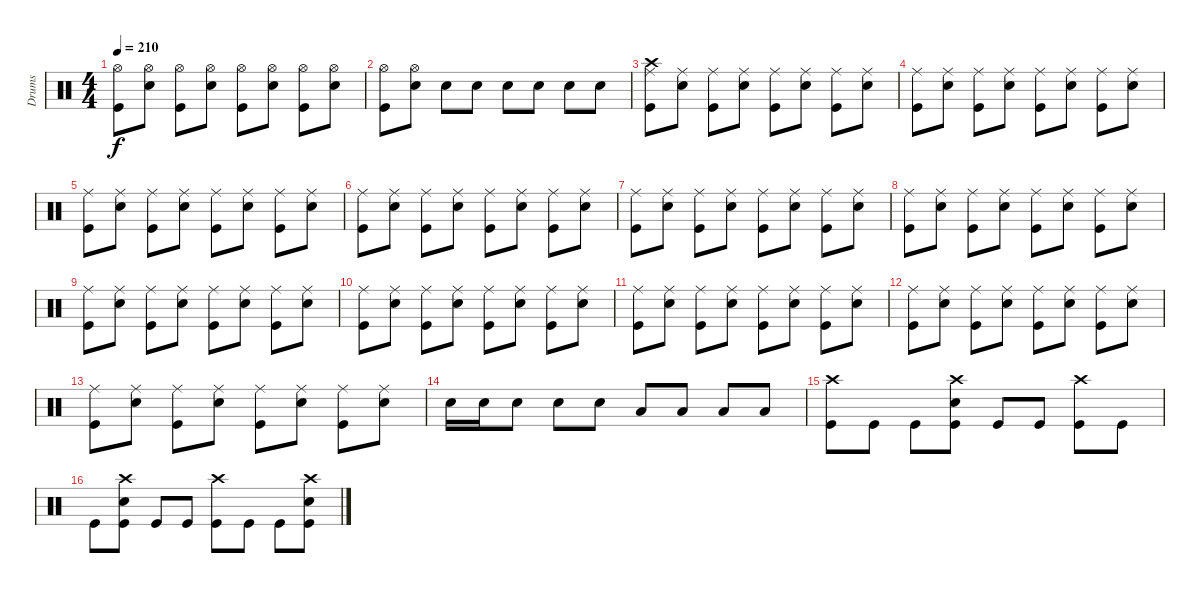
\track ("Drums" "Drums") {instrument percussion}
\staff {score}
\articulation defaults
\ts (4 4)
\tempo 210
\clef neutral
\ks c
("Hi-Hat (open)" "Kick (hit)").8{dy f} ("Electric Snare (hit)" "Hi-Hat (open)").8 ("Hi-Hat (open)" "Kick (hit)").8 ("Electric Snare (hit)" "Hi-Hat (open)").8 ("Hi-Hat (open)" "Kick (hit)").8 ("Electric Snare (hit)" "Hi-Hat (open)").8 ("Hi-Hat (open)" "Kick (hit)").8 ("Electric Snare (hit)" "Hi-Hat (open)").8 |
("Hi-Hat (open)" "Kick (hit)").8 ("Electric Snare (hit)" "Hi-Hat (open)").8 "Electric Snare (hit)".8 "Electric Snare (hit)".8 "Electric Snare (hit)".8 "Electric Snare (hit)".8 "Electric Snare (hit)".8 "Electric Snare (hit)".8 |
("Ride (middle)" "Crash high (hit)" "Kick (hit)").8 ("Electric Snare (hit)" "Ride (middle)").8 ("Ride (middle)" "Kick (hit)").8 ("Electric Snare (hit)" "Ride (middle)").8 ("Ride (middle)" "Kick (hit)").8 ("Electric Snare (hit)" "Ride (middle)").8 ("Ride (middle)" "Kick (hit)").8 ("Electric Snare (hit)" "Ride (middle)").8 |
("Ride (middle)" "Kick (hit)").8 ("Electric Snare (hit)" "Ride (middle)").8 ("Ride (middle)" "Kick (hit)").8 ("Electric Snare (hit)" "Ride (middle)").8 ("Ride (middle)" "Kick (hit)").8 ("Electric Snare (hit)" "Ride (middle)").8 ("Ride (middle)" "Kick (hit)").8 ("Electric Snare (hit)" "Ride (middle)").8 |
("Ride (middle)" "Kick (hit)").8 ("Electric Snare (hit)" "Ride (middle)").8 ("Ride (middle)" "Kick (hit)").8 ("Electric Snare (hit)" "Ride (middle)").8 ("Ride (middle)" "Kick (hit)").8 ("Electric Snare (hit)" "Ride (middle)").8 ("Ride (middle)" "Kick (hit)").8 ("Electric Snare (hit)" "Ride (middle)").8 |
("Ride (middle)" "Kick (hit)").8 ("Electric Snare (hit)" "Ride (middle)").8 ("Ride (middle)" "Kick (hit)").8 ("Electric Snare (hit)" "Ride (middle)").8 ("Ride (middle)" "Kick (hit)").8 ("Electric Snare (hit)" "Ride (middle)").8 ("Ride (middle)" "Kick (hit)").8 ("Electric Snare (hit)" "Ride (middle)").8 |
("Ride (middle)" "Kick (hit)").8 ("Electric Snare (hit)" "Ride (middle)").8 ("Ride (middle)" "Kick (hit)").8 ("Electric Snare (hit)" "Ride (middle)").8 ("Ride (middle)" "Kick (hit)").8 ("Electric Snare (hit)" "Ride (middle)").8 ("Ride (middle)" "Kick (hit)").8 ("Electric Snare (hit)" "Ride (middle)").8 |
("Ride (middle)" "Kick (hit)").8 ("Electric Snare (hit)" "Ride (middle)").8 ("Ride (middle)" "Kick (hit)").8 ("Electric Snare (hit)" "Ride (middle)").8 ("Ride (middle)" "Kick (hit)").8 ("Electric Snare (hit)" "Ride (middle)").8 ("Ride (middle)" "Kick (hit)").8 ("Electric Snare (hit)" "Ride (middle)").8 |
("Ride (middle)" "Kick (hit)").8 ("Electric Snare (hit)" "Ride (middle)").8 ("Ride (middle)" "Kick (hit)").8 ("Electric Snare (hit)" "Ride (middle)").8 ("Ride (middle)" "Kick (hit)").8 ("Electric Snare (hit)" "Ride (middle)").8 ("Ride (middle)" "Kick (hit)").8 ("Electric Snare (hit)" "Ride (middle)").8 |
("Ride (middle)" "Kick (hit)").8 ("Electric Snare (hit)" "Ride (middle)").8 ("Ride (middle)" "Kick (hit)").8 ("Electric Snare (hit)" "Ride (middle)").8 ("Ride (middle)" "Kick (hit)").8 ("Electric Snare (hit)" "Ride (middle)").8 ("Ride (middle)" "Kick (hit)").8 ("Electric Snare (hit)" "Ride (middle)").8 |
("Ride (middle)" "Kick (hit)").8 ("Electric Snare (hit)" "Ride (middle)").8 ("Ride (middle)" "Kick (hit)").8 ("Electric Snare (hit)" "Ride (middle)").8 ("Ride (middle)" "Kick (hit)").8 ("Electric Snare (hit)" "Ride (middle)").8 ("Ride (middle)" "Kick (hit)").8 ("Electric Snare (hit)" "Ride (middle)").8 |
("Ride (middle)" "Kick (hit)").8 ("Electric Snare (hit)" "Ride (middle)").8 ("Ride (middle)" "Kick (hit)").8 ("Electric Snare (hit)" "Ride (middle)").8 ("Ride (middle)" "Kick (hit)").8 ("Electric Snare (hit)" "Ride (middle)").8 ("Ride (middle)" "Kick (hit)").8 ("Electric Snare (hit)" "Ride (middle)").8 |
("Ride (middle)" "Kick (hit)").8 ("Electric Snare (hit)" "Ride (middle)").8 ("Ride (middle)" "Kick (hit)").8 ("Electric Snare (hit)" "Ride (middle)").8 ("Ride (middle)" "Kick (hit)").8 ("Electric Snare (hit)" "Ride (middle)").8 ("Ride (middle)" "Kick (hit)").8 ("Electric Snare (hit)" "Ride (middle)").8 |
"Electric Snare (hit)".16 "Electric Snare (hit)".16 "Electric Snare (hit)".8 "Electric Snare (hit)".8 "Electric Snare (hit)".8 "Low Tom (hit)".8 "Low Tom (hit)".8 "Low Tom (hit)".8 "Low Floor Tom (hit)".8 |
("Crash high (hit)" "Kick (hit)").8 "Kick (hit)".8 "Kick (hit)".8 ("Electric Snare (hit)" "Crash high (hit)" "Kick (hit)").8 "Kick (hit)".8 "Kick (hit)".8 ("Crash high (hit)" "Kick (hit)").8 "Kick (hit)".8 |
"Kick (hit)".8 ("Electric Snare (hit)" "Crash high (hit)" "Kick (hit)").8 "Kick (hit)".8 "Kick (hit)".8 ("Crash high (hit)" "Kick (hit)").8 "Kick (hit)".8 "Kick (hit)".8 ("Electric Snare (hit)" "Crash high (hit)" "Kick (hit)").8
